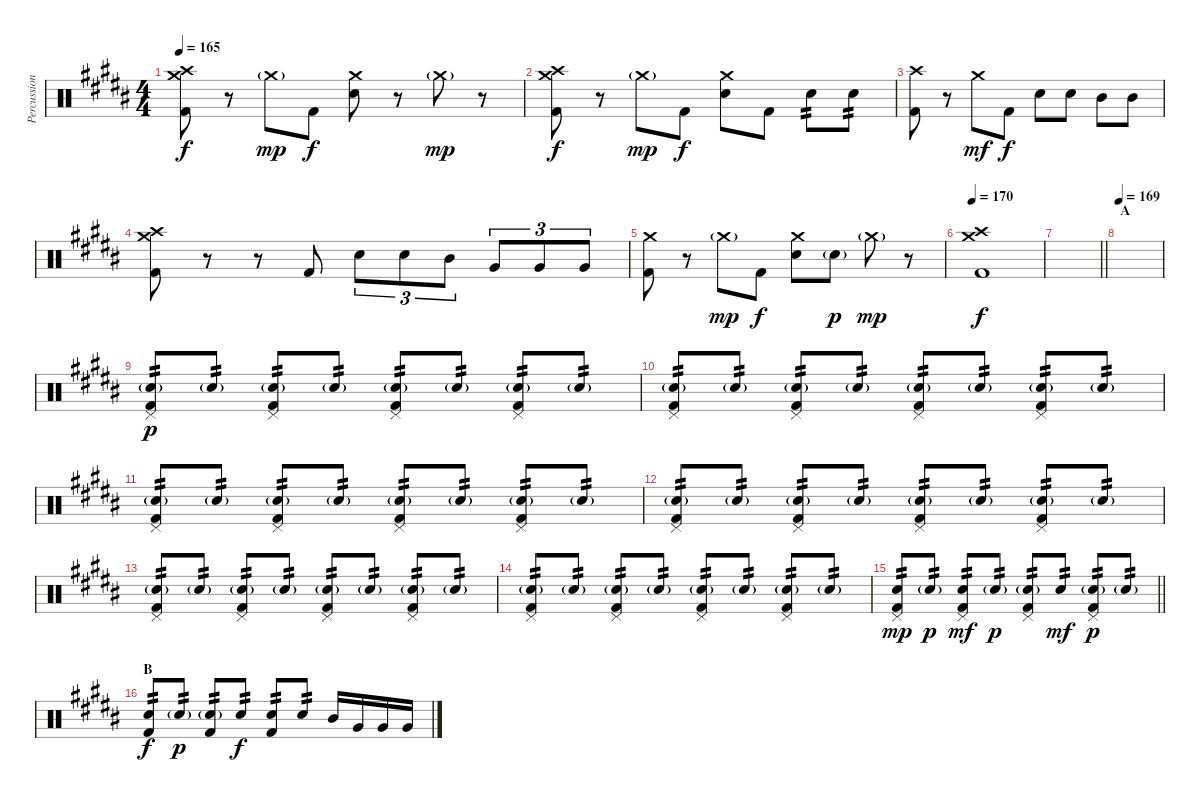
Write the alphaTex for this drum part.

\track ("Percussion" "Percussion") {instrument percussion}
\staff {score}
\articulation defaults
\ts (4 4)
\tempo 165
\clef neutral
\ks g#minor
("Crash medium (hit)" "Crash high (hit)" "Kick (hit) 2").8{dy f} r.8 "Crash medium (hit)"{g}.8{dy mp} "Kick (hit) 2".8{dy f} ("Crash medium (hit)" "Snare (hit) 2").8 r.8 "Crash medium (hit)"{g}.8{dy mp} r.8 |
("Crash medium (hit)" "Crash high (hit)" "Kick (hit) 2").8{dy f} r.8 "Crash medium (hit)"{g}.8{dy mp} "Kick (hit) 2".8{dy f} ("Crash medium (hit)" "Snare (hit) 2").8 "Kick (hit) 2".8 "Snare (hit) 2".8{tp 2} "Snare (hit) 2".8{tp 2} |
("Crash high (hit)" "Kick (hit) 2").8 r.8 "Crash medium (hit)".8{dy mf} "Kick (hit) 2".8{dy f} "Snare (hit) 2".8 "Snare (hit) 2".8 "Mid Tom (hit)".8 "Mid Tom (hit)".8 |
("Crash medium (hit)" "Crash high (hit)" "Kick (hit) 2").8 r.8 r.8 "Kick (hit) 2".8 "Snare (hit) 2".8{tu (3 2)} "Snare (hit) 2".8{tu (3 2)} "Mid Tom (hit)".8{tu (3 2)} "Very Low Tom (hit)".8{tu (3 2)} "Very Low Tom (hit)".8{tu (3 2)} "Very Low Tom (hit)".8{tu (3 2)} |
("Crash medium (hit)" "Kick (hit) 2").8 r.8 "Crash medium (hit)"{g}.8{dy mp} "Kick (hit) 2".8{dy f} ("Crash medium (hit)" "Snare (hit) 2").8 "Snare (hit) 2"{g}.8{dy p} "Crash medium (hit)"{g}.8{dy mp} r.8 |
\tempo 170
("Crash medium (hit)" "Crash high (hit)" "Kick (hit) 2").1{dy f} |
\barLineRight lightlight
|
\section ("" "A")
\tempo 169
|
("Pedal Hi-Hat (hit)" "Snare (hit) 2"{g} "Kick (hit) 2").8{tp 2 dy p} "Snare (hit) 2"{g}.8{tp 2} ("Pedal Hi-Hat (hit)" "Snare (hit) 2"{g} "Kick (hit) 2").8{tp 2} "Snare (hit) 2"{g}.8{tp 2} ("Pedal Hi-Hat (hit)" "Snare (hit) 2"{g} "Kick (hit) 2").8{tp 2} "Snare (hit) 2"{g}.8{tp 2} ("Pedal Hi-Hat (hit)" "Snare (hit) 2"{g} "Kick (hit) 2").8{tp 2} "Snare (hit) 2"{g}.8{tp 2} |
("Pedal Hi-Hat (hit)" "Snare (hit) 2"{g} "Kick (hit) 2").8{tp 2} "Snare (hit) 2"{g}.8{tp 2} ("Pedal Hi-Hat (hit)" "Snare (hit) 2"{g} "Kick (hit) 2").8{tp 2} "Snare (hit) 2"{g}.8{tp 2} ("Pedal Hi-Hat (hit)" "Snare (hit) 2"{g} "Kick (hit) 2").8{tp 2} "Snare (hit) 2"{g}.8{tp 2} ("Pedal Hi-Hat (hit)" "Snare (hit) 2"{g} "Kick (hit) 2").8{tp 2} "Snare (hit) 2"{g}.8{tp 2} |
("Pedal Hi-Hat (hit)" "Snare (hit) 2"{g} "Kick (hit) 2").8{tp 2} "Snare (hit) 2"{g}.8{tp 2} ("Pedal Hi-Hat (hit)" "Snare (hit) 2"{g} "Kick (hit) 2").8{tp 2} "Snare (hit) 2"{g}.8{tp 2} ("Pedal Hi-Hat (hit)" "Snare (hit) 2"{g} "Kick (hit) 2").8{tp 2} "Snare (hit) 2"{g}.8{tp 2} ("Pedal Hi-Hat (hit)" "Snare (hit) 2"{g} "Kick (hit) 2").8{tp 2} "Snare (hit) 2"{g}.8{tp 2} |
("Pedal Hi-Hat (hit)" "Snare (hit) 2"{g} "Kick (hit) 2").8{tp 2} "Snare (hit) 2"{g}.8{tp 2} ("Pedal Hi-Hat (hit)" "Snare (hit) 2"{g} "Kick (hit) 2").8{tp 2} "Snare (hit) 2"{g}.8{tp 2} ("Pedal Hi-Hat (hit)" "Snare (hit) 2"{g} "Kick (hit) 2").8{tp 2} "Snare (hit) 2"{g}.8{tp 2} ("Pedal Hi-Hat (hit)" "Snare (hit) 2"{g} "Kick (hit) 2").8{tp 2} "Snare (hit) 2"{g}.8{tp 2} |
("Pedal Hi-Hat (hit)" "Snare (hit) 2"{g} "Kick (hit) 2").8{tp 2} "Snare (hit) 2"{g}.8{tp 2} ("Pedal Hi-Hat (hit)" "Snare (hit) 2"{g} "Kick (hit) 2").8{tp 2} "Snare (hit) 2"{g}.8{tp 2} ("Pedal Hi-Hat (hit)" "Snare (hit) 2"{g} "Kick (hit) 2").8{tp 2} "Snare (hit) 2"{g}.8{tp 2} ("Pedal Hi-Hat (hit)" "Snare (hit) 2"{g} "Kick (hit) 2").8{tp 2} "Snare (hit) 2"{g}.8{tp 2} |
("Pedal Hi-Hat (hit)" "Snare (hit) 2"{g} "Kick (hit) 2").8{tp 2} "Snare (hit) 2"{g}.8{tp 2} ("Pedal Hi-Hat (hit)" "Snare (hit) 2"{g} "Kick (hit) 2").8{tp 2} "Snare (hit) 2"{g}.8{tp 2} ("Pedal Hi-Hat (hit)" "Snare (hit) 2"{g} "Kick (hit) 2").8{tp 2} "Snare (hit) 2"{g}.8{tp 2} ("Pedal Hi-Hat (hit)" "Snare (hit) 2"{g} "Kick (hit) 2").8{tp 2} "Snare (hit) 2"{g}.8{tp 2} |
\barLineRight lightlight
("Pedal Hi-Hat (hit)" "Snare (hit) 2" "Kick (hit) 2").8{tp 2 dy mp} "Snare (hit) 2"{g}.8{tp 2 dy p} ("Pedal Hi-Hat (hit)" "Snare (hit) 2" "Kick (hit) 2").8{tp 2 dy mf} "Snare (hit) 2"{g}.8{tp 2 dy p} ("Pedal Hi-Hat (hit)" "Snare (hit) 2"{g} "Kick (hit) 2").8{tp 2} "Snare (hit) 2".8{tp 2 dy mf} ("Pedal Hi-Hat (hit)" "Snare (hit) 2"{g} "Kick (hit) 2").8{tp 2 dy p} "Snare (hit) 2"{g}.8{tp 2} |
\section ("" "B")
("Snare (hit) 2" "Kick (hit) 2").8{tp 2 dy f} "Snare (hit) 2"{g}.8{tp 2 dy p} ("Snare (hit) 2"{g} "Kick (hit) 2").8{tp 2} "Snare (hit) 2".8{tp 2 dy f} ("Snare (hit) 2" "Kick (hit) 2").8{tp 2} "Snare (hit) 2".8{tp 2} "Mid Tom (hit)".16 "Very Low Tom (hit)".16 "Very Low Tom (hit)".16 "Very Low Tom (hit)".16
